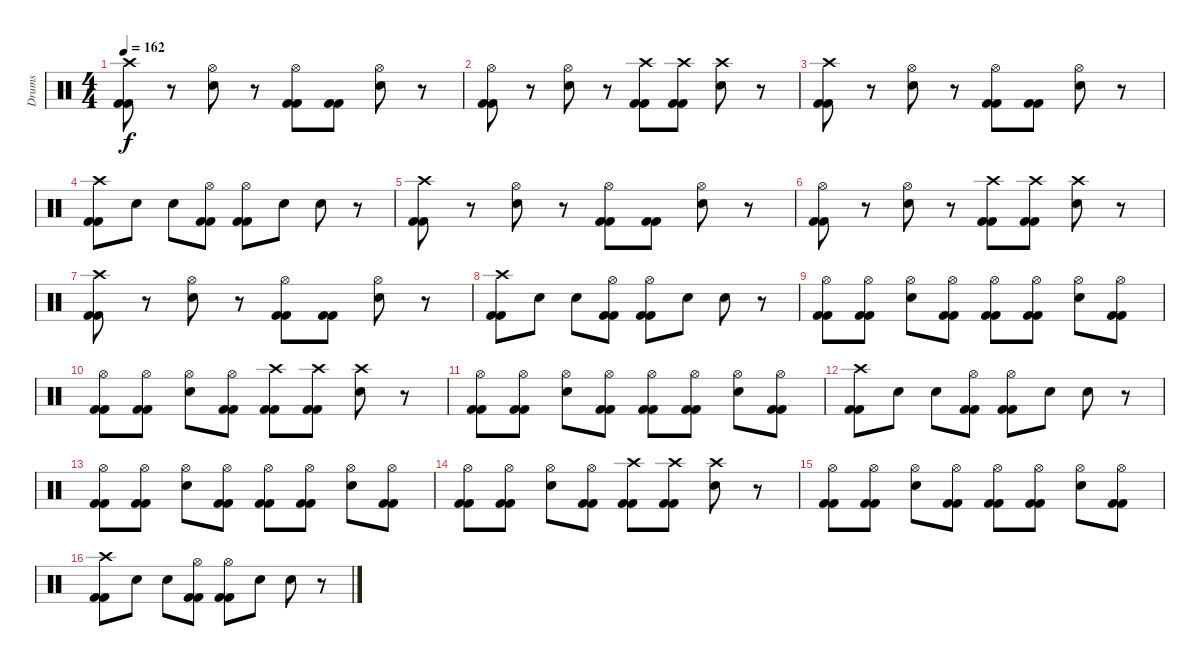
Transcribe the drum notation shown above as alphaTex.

\track ("Drums" "Drums") {instrument percussion}
\staff {score}
\articulation defaults
\ts (4 4)
\tempo 162
\clef neutral
\ks c
("Crash high (hit)" "Kick (hit) 2" "Kick (hit) 2").8{dy f} r.8 ("Hi-Hat (open)" "Electric Snare (hit)").8 r.8 ("Hi-Hat (open)" "Kick (hit) 2" "Kick (hit) 2").8 ("Kick (hit) 2" "Kick (hit) 2").8 ("Hi-Hat (open)" "Electric Snare (hit)").8 r.8 |
("Hi-Hat (open)" "Kick (hit) 2" "Kick (hit) 2").8 r.8 ("Hi-Hat (open)" "Electric Snare (hit)").8 r.8 ("Crash high (hit)" "Kick (hit) 2" "Kick (hit) 2").8 ("Crash high (hit)" "Kick (hit) 2" "Kick (hit) 2").8 ("Crash high (hit)" "Electric Snare (hit)").8 r.8 |
("Crash high (hit)" "Kick (hit) 2" "Kick (hit) 2").8 r.8 ("Hi-Hat (open)" "Electric Snare (hit)").8 r.8 ("Hi-Hat (open)" "Kick (hit) 2" "Kick (hit) 2").8 ("Kick (hit) 2" "Kick (hit) 2").8 ("Hi-Hat (open)" "Electric Snare (hit)").8 r.8 |
("Crash high (hit)" "Kick (hit) 2" "Kick (hit) 2").8 "Electric Snare (hit)".8 "Electric Snare (hit)".8 ("Hi-Hat (open)" "Kick (hit) 2" "Kick (hit) 2").8 ("Hi-Hat (open)" "Kick (hit) 2" "Kick (hit) 2").8 "Electric Snare (hit)".8 "Electric Snare (hit)".8 r.8 |
("Crash high (hit)" "Kick (hit) 2" "Kick (hit) 2").8 r.8 ("Hi-Hat (open)" "Electric Snare (hit)").8 r.8 ("Hi-Hat (open)" "Kick (hit) 2" "Kick (hit) 2").8 ("Kick (hit) 2" "Kick (hit) 2").8 ("Hi-Hat (open)" "Electric Snare (hit)").8 r.8 |
("Hi-Hat (open)" "Kick (hit) 2" "Kick (hit) 2").8 r.8 ("Hi-Hat (open)" "Electric Snare (hit)").8 r.8 ("Crash high (hit)" "Kick (hit) 2" "Kick (hit) 2").8 ("Crash high (hit)" "Kick (hit) 2" "Kick (hit) 2").8 ("Crash high (hit)" "Electric Snare (hit)").8 r.8 |
("Crash high (hit)" "Kick (hit) 2" "Kick (hit) 2").8 r.8 ("Hi-Hat (open)" "Electric Snare (hit)").8 r.8 ("Hi-Hat (open)" "Kick (hit) 2" "Kick (hit) 2").8 ("Kick (hit) 2" "Kick (hit) 2").8 ("Hi-Hat (open)" "Electric Snare (hit)").8 r.8 |
("Crash high (hit)" "Kick (hit) 2" "Kick (hit) 2").8 "Electric Snare (hit)".8 "Electric Snare (hit)".8 ("Hi-Hat (open)" "Kick (hit) 2" "Kick (hit) 2").8 ("Hi-Hat (open)" "Kick (hit) 2" "Kick (hit) 2").8 "Electric Snare (hit)".8 "Electric Snare (hit)".8 r.8 |
("Hi-Hat (open)" "Kick (hit) 2" "Kick (hit) 2").8 ("Hi-Hat (open)" "Kick (hit) 2" "Kick (hit) 2").8 ("Hi-Hat (open)" "Electric Snare (hit)").8 ("Hi-Hat (open)" "Kick (hit) 2" "Kick (hit) 2").8 ("Hi-Hat (open)" "Kick (hit) 2" "Kick (hit) 2").8 ("Hi-Hat (open)" "Kick (hit) 2" "Kick (hit) 2").8 ("Hi-Hat (open)" "Electric Snare (hit)").8 ("Hi-Hat (open)" "Kick (hit) 2" "Kick (hit) 2").8 |
("Hi-Hat (open)" "Kick (hit) 2" "Kick (hit) 2").8 ("Hi-Hat (open)" "Kick (hit) 2" "Kick (hit) 2").8 ("Hi-Hat (open)" "Electric Snare (hit)").8 ("Hi-Hat (open)" "Kick (hit) 2" "Kick (hit) 2").8 ("Crash high (hit)" "Kick (hit) 2" "Kick (hit) 2").8 ("Crash high (hit)" "Kick (hit) 2" "Kick (hit) 2").8 ("Crash high (hit)" "Electric Snare (hit)").8 r.8 |
("Hi-Hat (open)" "Kick (hit) 2" "Kick (hit) 2").8 ("Hi-Hat (open)" "Kick (hit) 2" "Kick (hit) 2").8 ("Hi-Hat (open)" "Electric Snare (hit)").8 ("Hi-Hat (open)" "Kick (hit) 2" "Kick (hit) 2").8 ("Hi-Hat (open)" "Kick (hit) 2" "Kick (hit) 2").8 ("Hi-Hat (open)" "Kick (hit) 2" "Kick (hit) 2").8 ("Hi-Hat (open)" "Electric Snare (hit)").8 ("Hi-Hat (open)" "Kick (hit) 2" "Kick (hit) 2").8 |
("Crash high (hit)" "Kick (hit) 2" "Kick (hit) 2").8 "Electric Snare (hit)".8 "Electric Snare (hit)".8 ("Hi-Hat (open)" "Kick (hit) 2" "Kick (hit) 2").8 ("Hi-Hat (open)" "Kick (hit) 2" "Kick (hit) 2").8 "Electric Snare (hit)".8 "Electric Snare (hit)".8 r.8 |
("Hi-Hat (open)" "Kick (hit) 2" "Kick (hit) 2").8 ("Hi-Hat (open)" "Kick (hit) 2" "Kick (hit) 2").8 ("Hi-Hat (open)" "Electric Snare (hit)").8 ("Hi-Hat (open)" "Kick (hit) 2" "Kick (hit) 2").8 ("Hi-Hat (open)" "Kick (hit) 2" "Kick (hit) 2").8 ("Hi-Hat (open)" "Kick (hit) 2" "Kick (hit) 2").8 ("Hi-Hat (open)" "Electric Snare (hit)").8 ("Hi-Hat (open)" "Kick (hit) 2" "Kick (hit) 2").8 |
("Hi-Hat (open)" "Kick (hit) 2" "Kick (hit) 2").8 ("Hi-Hat (open)" "Kick (hit) 2" "Kick (hit) 2").8 ("Hi-Hat (open)" "Electric Snare (hit)").8 ("Hi-Hat (open)" "Kick (hit) 2" "Kick (hit) 2").8 ("Crash high (hit)" "Kick (hit) 2" "Kick (hit) 2").8 ("Crash high (hit)" "Kick (hit) 2" "Kick (hit) 2").8 ("Crash high (hit)" "Electric Snare (hit)").8 r.8 |
("Hi-Hat (open)" "Kick (hit) 2" "Kick (hit) 2").8 ("Hi-Hat (open)" "Kick (hit) 2" "Kick (hit) 2").8 ("Hi-Hat (open)" "Electric Snare (hit)").8 ("Hi-Hat (open)" "Kick (hit) 2" "Kick (hit) 2").8 ("Hi-Hat (open)" "Kick (hit) 2" "Kick (hit) 2").8 ("Hi-Hat (open)" "Kick (hit) 2" "Kick (hit) 2").8 ("Hi-Hat (open)" "Electric Snare (hit)").8 ("Hi-Hat (open)" "Kick (hit) 2" "Kick (hit) 2").8 |
("Crash high (hit)" "Kick (hit) 2" "Kick (hit) 2").8 "Electric Snare (hit)".8 "Electric Snare (hit)".8 ("Hi-Hat (open)" "Kick (hit) 2" "Kick (hit) 2").8 ("Hi-Hat (open)" "Kick (hit) 2" "Kick (hit) 2").8 "Electric Snare (hit)".8 "Electric Snare (hit)".8 r.8
